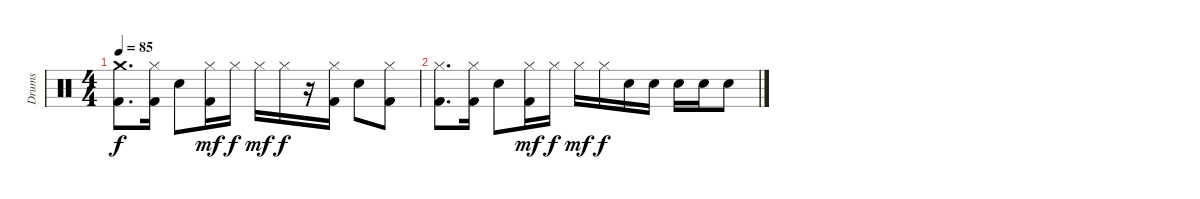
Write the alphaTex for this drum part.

\track ("Drums" "Drums") {instrument percussion}
\staff {score}
\articulation defaults
\ts (4 4)
\tempo 85
\clef neutral
\ks c
("Crash medium (hit)" "Kick (hit) 2").8{d dy f} ("Hi-Hat (closed)" "Kick (hit) 2").16 "Snare (hit) 2".8 ("Hi-Hat (closed)" "Kick (hit) 2").16{dy mf} "Hi-Hat (closed)".16{dy f} "Hi-Hat (closed)".16{dy mf} "Hi-Hat (closed)".16{dy f} r.16 ("Hi-Hat (closed)" "Kick (hit) 2").16 "Snare (hit) 2".8 ("Hi-Hat (closed)" "Kick (hit) 2").8 |
("Hi-Hat (closed)" "Kick (hit) 2").8{d} ("Hi-Hat (closed)" "Kick (hit) 2").16 "Snare (hit) 2".8 ("Hi-Hat (closed)" "Kick (hit) 2").16{dy mf} "Hi-Hat (closed)".16{dy f} "Hi-Hat (closed)".16{dy mf} "Hi-Hat (closed)".16{dy f} "Snare (hit) 2".16 "Snare (hit) 2".16 "Snare (hit) 2".16 "Snare (hit) 2".16 "Snare (hit) 2".8
